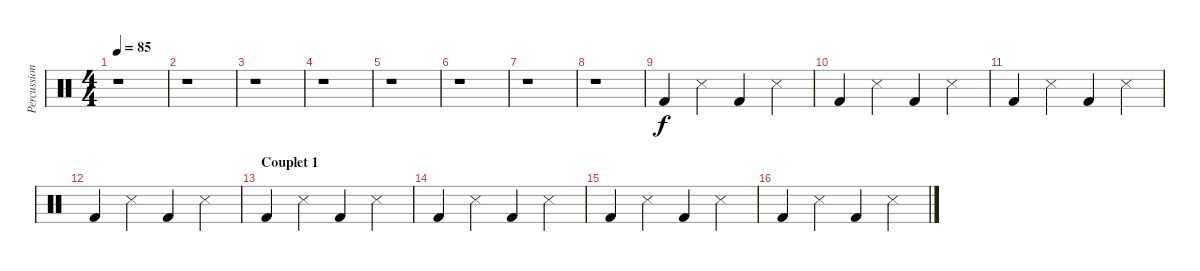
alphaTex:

\track ("Percussions" "Percussion") {instrument percussion}
\staff {score}
\articulation defaults
\ts (4 4)
\tempo 85
\clef neutral
\ks c
r.1{dy f} |
r.1 |
r.1 |
r.1 |
r.1 |
r.1 |
r.1 |
r.1 |
"Kick (hit) 2".4 "Snare (side stick) 3".4 "Kick (hit) 2".4 "Snare (side stick) 3".4 |
"Kick (hit) 2".4 "Snare (side stick) 3".4 "Kick (hit) 2".4 "Snare (side stick) 3".4 |
"Kick (hit) 2".4 "Snare (side stick) 3".4 "Kick (hit) 2".4 "Snare (side stick) 3".4 |
"Kick (hit) 2".4 "Snare (side stick) 3".4 "Kick (hit) 2".4 "Snare (side stick) 3".4 |
\section ("" "Couplet 1")
"Kick (hit) 2".4 "Snare (side stick) 3".4 "Kick (hit) 2".4 "Snare (side stick) 3".4 |
"Kick (hit) 2".4 "Snare (side stick) 3".4 "Kick (hit) 2".4 "Snare (side stick) 3".4 |
"Kick (hit) 2".4 "Snare (side stick) 3".4 "Kick (hit) 2".4 "Snare (side stick) 3".4 |
"Kick (hit) 2".4 "Snare (side stick) 3".4 "Kick (hit) 2".4 "Snare (side stick) 3".4
